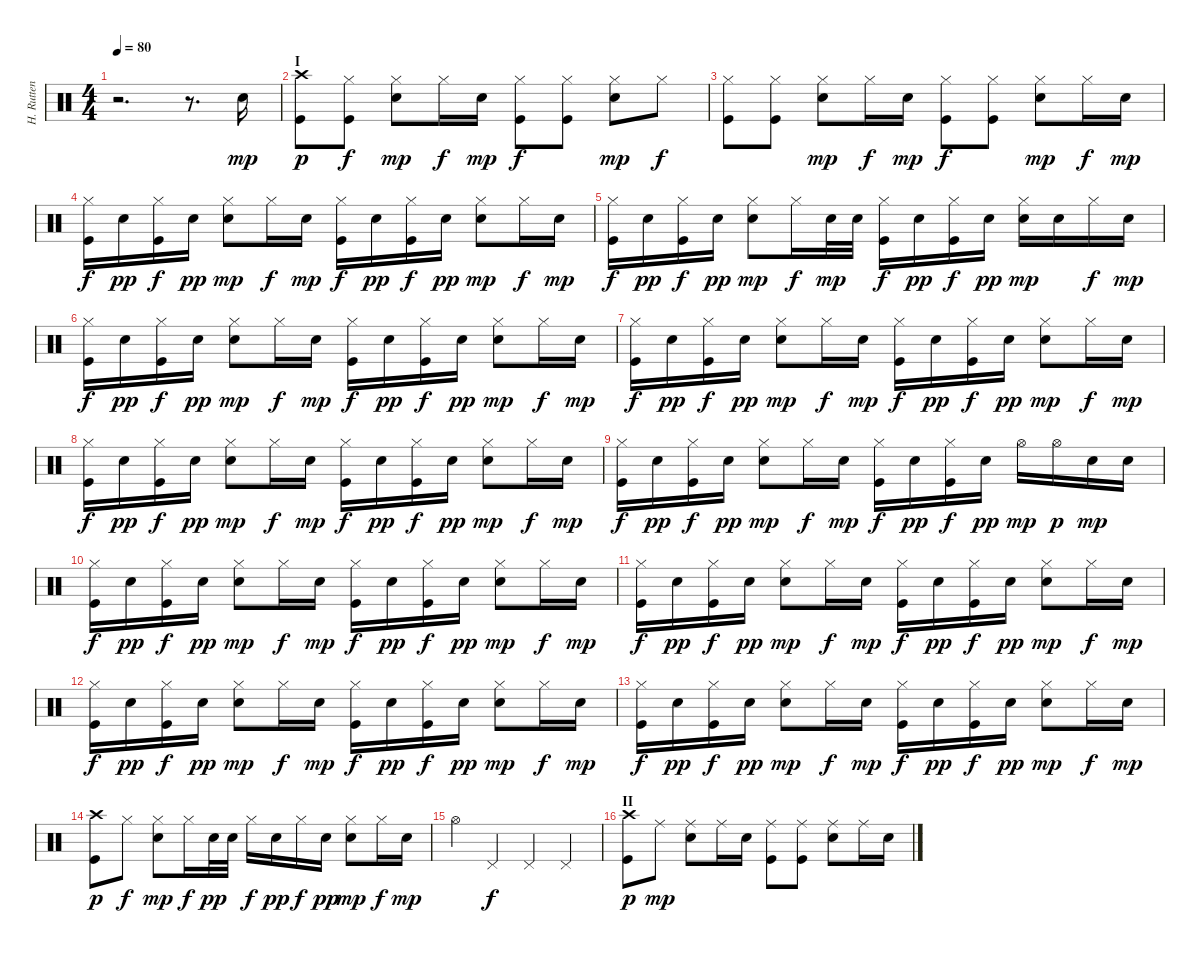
\track ("H. Rutten" "H. Rutten") {instrument percussion}
\staff {score}
\articulation defaults
\ts (4 4)
\tempo 80
\clef neutral
\ks c
r.2{d dy mp} r.8{d} "Electric Snare (hit)".16 |
\section ("" "I")
("Kick (hit)" "Crash high (hit)").8{dy p} ("Kick (hit)" "Hi-Hat (closed)").8{dy f} ("Electric Snare (hit)" "Hi-Hat (closed)").8{dy mp} "Hi-Hat (closed)".16{dy f} "Electric Snare (hit)".16{dy mp} ("Kick (hit)" "Hi-Hat (closed)").8{dy f} ("Kick (hit)" "Hi-Hat (closed)").8 ("Electric Snare (hit)" "Hi-Hat (closed)").8{dy mp} "Hi-Hat (closed)".8{dy f} |
("Kick (hit)" "Hi-Hat (closed)").8 ("Kick (hit)" "Hi-Hat (closed)").8 ("Electric Snare (hit)" "Hi-Hat (closed)").8{dy mp} "Hi-Hat (closed)".16{dy f} "Electric Snare (hit)".16{dy mp} ("Kick (hit)" "Hi-Hat (closed)").8{dy f} ("Kick (hit)" "Hi-Hat (closed)").8 ("Electric Snare (hit)" "Hi-Hat (closed)").8{dy mp} "Hi-Hat (closed)".16{dy f} "Electric Snare (hit)".16{dy mp} |
("Kick (hit)" "Hi-Hat (closed)").16{dy f} "Electric Snare (hit)".16{dy pp} ("Kick (hit)" "Hi-Hat (closed)").16{dy f} "Electric Snare (hit)".16{dy pp} ("Electric Snare (hit)" "Hi-Hat (closed)").8{dy mp} "Hi-Hat (closed)".16{dy f} "Electric Snare (hit)".16{dy mp} ("Kick (hit)" "Hi-Hat (closed)").16{dy f} "Electric Snare (hit)".16{dy pp} ("Kick (hit)" "Hi-Hat (closed)").16{dy f} "Electric Snare (hit)".16{dy pp} ("Electric Snare (hit)" "Hi-Hat (closed)").8{dy mp} "Hi-Hat (closed)".16{dy f} "Electric Snare (hit)".16{dy mp} |
("Kick (hit)" "Hi-Hat (closed)").16{dy f} "Electric Snare (hit)".16{dy pp} ("Kick (hit)" "Hi-Hat (closed)").16{dy f} "Electric Snare (hit)".16{dy pp} ("Electric Snare (hit)" "Hi-Hat (closed)").8{dy mp} "Hi-Hat (closed)".16{dy f} "Electric Snare (hit)".32{dy mp} "Electric Snare (hit)".32 ("Kick (hit)" "Hi-Hat (closed)").16{dy f} "Electric Snare (hit)".16{dy pp} ("Kick (hit)" "Hi-Hat (closed)").16{dy f} "Electric Snare (hit)".16{dy pp} ("Electric Snare (hit)" "Hi-Hat (closed)").16{dy mp} "Electric Snare (hit)".16 "Hi-Hat (closed)".16{dy f} "Electric Snare (hit)".16{dy mp} |
("Kick (hit)" "Hi-Hat (closed)").16{dy f} "Electric Snare (hit)".16{dy pp} ("Kick (hit)" "Hi-Hat (closed)").16{dy f} "Electric Snare (hit)".16{dy pp} ("Electric Snare (hit)" "Hi-Hat (closed)").8{dy mp} "Hi-Hat (closed)".16{dy f} "Electric Snare (hit)".16{dy mp} ("Kick (hit)" "Hi-Hat (closed)").16{dy f} "Electric Snare (hit)".16{dy pp} ("Kick (hit)" "Hi-Hat (closed)").16{dy f} "Electric Snare (hit)".16{dy pp} ("Electric Snare (hit)" "Hi-Hat (closed)").8{dy mp} "Hi-Hat (closed)".16{dy f} "Electric Snare (hit)".16{dy mp} |
("Kick (hit)" "Hi-Hat (closed)").16{dy f} "Electric Snare (hit)".16{dy pp} ("Kick (hit)" "Hi-Hat (closed)").16{dy f} "Electric Snare (hit)".16{dy pp} ("Electric Snare (hit)" "Hi-Hat (closed)").8{dy mp} "Hi-Hat (closed)".16{dy f} "Electric Snare (hit)".16{dy mp} ("Kick (hit)" "Hi-Hat (closed)").16{dy f} "Electric Snare (hit)".16{dy pp} ("Kick (hit)" "Hi-Hat (closed)").16{dy f} "Electric Snare (hit)".16{dy pp} ("Electric Snare (hit)" "Hi-Hat (closed)").8{dy mp} "Hi-Hat (closed)".16{dy f} "Electric Snare (hit)".16{dy mp} |
("Kick (hit)" "Hi-Hat (closed)").16{dy f} "Electric Snare (hit)".16{dy pp} ("Kick (hit)" "Hi-Hat (closed)").16{dy f} "Electric Snare (hit)".16{dy pp} ("Electric Snare (hit)" "Hi-Hat (closed)").8{dy mp} "Hi-Hat (closed)".16{dy f} "Electric Snare (hit)".16{dy mp} ("Kick (hit)" "Hi-Hat (closed)").16{dy f} "Electric Snare (hit)".16{dy pp} ("Kick (hit)" "Hi-Hat (closed)").16{dy f} "Electric Snare (hit)".16{dy pp} ("Electric Snare (hit)" "Hi-Hat (closed)").8{dy mp} "Hi-Hat (closed)".16{dy f} "Electric Snare (hit)".16{dy mp} |
("Kick (hit)" "Hi-Hat (closed)").16{dy f} "Electric Snare (hit)".16{dy pp} ("Kick (hit)" "Hi-Hat (closed)").16{dy f} "Electric Snare (hit)".16{dy pp} ("Electric Snare (hit)" "Hi-Hat (closed)").8{dy mp} "Hi-Hat (closed)".16{dy f} "Electric Snare (hit)".16{dy mp} ("Kick (hit)" "Hi-Hat (closed)").16{dy f} "Electric Snare (hit)".16{dy pp} ("Kick (hit)" "Hi-Hat (closed)").16{dy f} "Electric Snare (hit)".16{dy pp} "Hi-Hat (open)".16{dy mp} "Hi-Hat (open)".16{dy p} "Electric Snare (hit)".16{dy mp} "Electric Snare (hit)".16 |
("Kick (hit)" "Hi-Hat (closed)").16{dy f} "Electric Snare (hit)".16{dy pp} ("Kick (hit)" "Hi-Hat (closed)").16{dy f} "Electric Snare (hit)".16{dy pp} ("Electric Snare (hit)" "Hi-Hat (closed)").8{dy mp} "Hi-Hat (closed)".16{dy f} "Electric Snare (hit)".16{dy mp} ("Kick (hit)" "Hi-Hat (closed)").16{dy f} "Electric Snare (hit)".16{dy pp} ("Kick (hit)" "Hi-Hat (closed)").16{dy f} "Electric Snare (hit)".16{dy pp} ("Electric Snare (hit)" "Hi-Hat (closed)").8{dy mp} "Hi-Hat (closed)".16{dy f} "Electric Snare (hit)".16{dy mp} |
("Kick (hit)" "Hi-Hat (closed)").16{dy f} "Electric Snare (hit)".16{dy pp} ("Kick (hit)" "Hi-Hat (closed)").16{dy f} "Electric Snare (hit)".16{dy pp} ("Electric Snare (hit)" "Hi-Hat (closed)").8{dy mp} "Hi-Hat (closed)".16{dy f} "Electric Snare (hit)".16{dy mp} ("Kick (hit)" "Hi-Hat (closed)").16{dy f} "Electric Snare (hit)".16{dy pp} ("Kick (hit)" "Hi-Hat (closed)").16{dy f} "Electric Snare (hit)".16{dy pp} ("Electric Snare (hit)" "Hi-Hat (closed)").8{dy mp} "Hi-Hat (closed)".16{dy f} "Electric Snare (hit)".16{dy mp} |
("Kick (hit)" "Hi-Hat (closed)").16{dy f} "Electric Snare (hit)".16{dy pp} ("Kick (hit)" "Hi-Hat (closed)").16{dy f} "Electric Snare (hit)".16{dy pp} ("Electric Snare (hit)" "Hi-Hat (closed)").8{dy mp} "Hi-Hat (closed)".16{dy f} "Electric Snare (hit)".16{dy mp} ("Kick (hit)" "Hi-Hat (closed)").16{dy f} "Electric Snare (hit)".16{dy pp} ("Kick (hit)" "Hi-Hat (closed)").16{dy f} "Electric Snare (hit)".16{dy pp} ("Electric Snare (hit)" "Hi-Hat (closed)").8{dy mp} "Hi-Hat (closed)".16{dy f} "Electric Snare (hit)".16{dy mp} |
("Kick (hit)" "Hi-Hat (closed)").16{dy f} "Electric Snare (hit)".16{dy pp} ("Kick (hit)" "Hi-Hat (closed)").16{dy f} "Electric Snare (hit)".16{dy pp} ("Electric Snare (hit)" "Hi-Hat (closed)").8{dy mp} "Hi-Hat (closed)".16{dy f} "Electric Snare (hit)".16{dy mp} ("Kick (hit)" "Hi-Hat (closed)").16{dy f} "Electric Snare (hit)".16{dy pp} ("Kick (hit)" "Hi-Hat (closed)").16{dy f} "Electric Snare (hit)".16{dy pp} ("Electric Snare (hit)" "Hi-Hat (closed)").8{dy mp} "Hi-Hat (closed)".16{dy f} "Electric Snare (hit)".16{dy mp} |
("Kick (hit)" "Crash high (hit)").8{dy p} "Hi-Hat (closed)".8{dy f} ("Electric Snare (hit)" "Hi-Hat (closed)").8{dy mp} "Hi-Hat (closed)".16{dy f} "Electric Snare (hit)".32{dy pp} "Electric Snare (hit)".32 "Hi-Hat (closed)".16{dy f} "Electric Snare (hit)".16{dy pp} "Hi-Hat (closed)".16{dy f} "Electric Snare (hit)".16{dy pp} ("Electric Snare (hit)" "Hi-Hat (closed)").8{dy mp} "Hi-Hat (closed)".16{dy f} "Electric Snare (hit)".16{dy mp} |
"Hi-Hat (open)".4 "Pedal Hi-Hat (hit)".4{dy f} "Pedal Hi-Hat (hit)".4 "Pedal Hi-Hat (hit)".4 |
\section ("" "II")
("Kick (hit)" "Crash high (hit)").8{dy p} "Ride (middle)".8{dy mp} ("Electric Snare (hit)" "Ride (middle)").8 "Ride (middle)".16 "Electric Snare (hit)".16 ("Kick (hit)" "Ride (middle)").8 ("Kick (hit)" "Ride (middle)").8 ("Electric Snare (hit)" "Ride (middle)").8 "Ride (middle)".16 "Electric Snare (hit)".16
